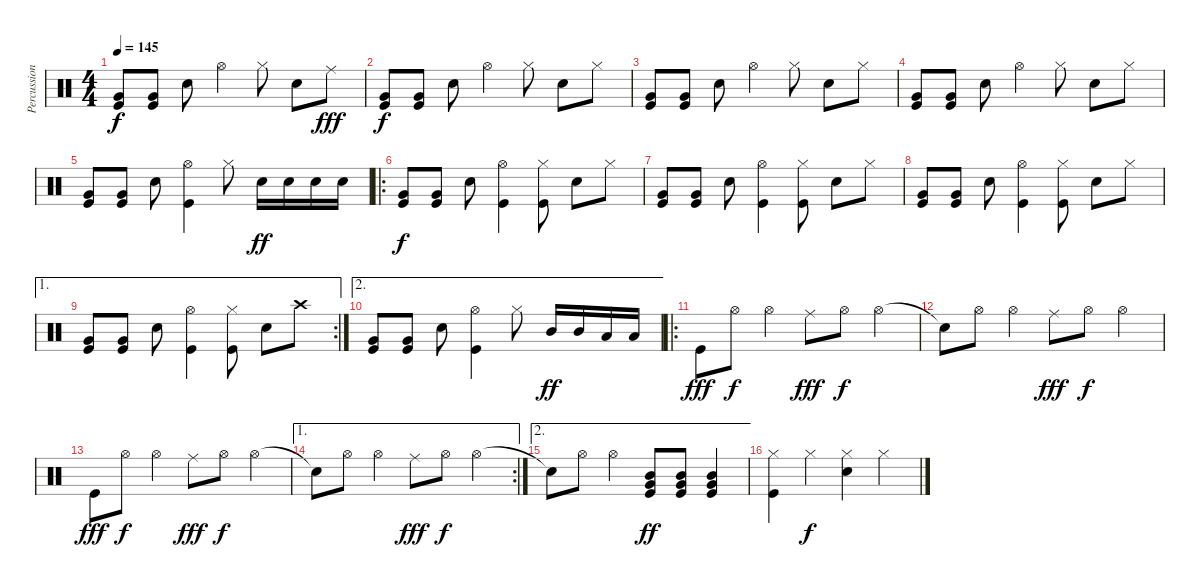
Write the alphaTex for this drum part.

\track ("Percussions" "Percussion") {instrument percussion}
\staff {score}
\articulation defaults
\ts (4 4)
\tempo 145
\clef neutral
\ks c
("Very Low Tom (hit)" "Kick (hit)").8{dy f} ("Very Low Tom (hit)" "Kick (hit)").8 "Snare (hit) 2".8 "Hi-Hat (open)".4 "Hi-Hat (closed)".8 "Snare (hit) 2".8 "Ride (middle)".8{dy fff} |
("Very Low Tom (hit)" "Kick (hit)").8{dy f} ("Very Low Tom (hit)" "Kick (hit)").8 "Snare (hit) 2".8 "Hi-Hat (open)".4 "Hi-Hat (closed)".8 "Snare (hit) 2".8 "Hi-Hat (closed)".8 |
("Very Low Tom (hit)" "Kick (hit)").8 ("Very Low Tom (hit)" "Kick (hit)").8 "Snare (hit) 2".8 "Hi-Hat (open)".4 "Hi-Hat (closed)".8 "Snare (hit) 2".8 "Hi-Hat (closed)".8 |
("Very Low Tom (hit)" "Kick (hit)").8 ("Very Low Tom (hit)" "Kick (hit)").8 "Snare (hit) 2".8 "Hi-Hat (open)".4 "Hi-Hat (closed)".8 "Snare (hit) 2".8 "Hi-Hat (closed)".8 |
("Very Low Tom (hit)" "Kick (hit)").8 ("Very Low Tom (hit)" "Kick (hit)").8 "Snare (hit) 2".8 ("Hi-Hat (open)" "Kick (hit)").4 "Hi-Hat (closed)".8 "Snare (hit) 2".16{dy ff} "Snare (hit) 2".16 "Snare (hit) 2".16 "Snare (hit) 2".16 |
\ro
("Very Low Tom (hit)" "Kick (hit)").8{dy f} ("Very Low Tom (hit)" "Kick (hit)").8 "Snare (hit) 2".8 ("Hi-Hat (open)" "Kick (hit)").4 ("Hi-Hat (closed)" "Kick (hit)").8 "Snare (hit) 2".8 "Hi-Hat (closed)".8 |
("Very Low Tom (hit)" "Kick (hit)").8 ("Very Low Tom (hit)" "Kick (hit)").8 "Snare (hit) 2".8 ("Hi-Hat (open)" "Kick (hit)").4 ("Hi-Hat (closed)" "Kick (hit)").8 "Snare (hit) 2".8 "Hi-Hat (closed)".8 |
("Very Low Tom (hit)" "Kick (hit)").8 ("Very Low Tom (hit)" "Kick (hit)").8 "Snare (hit) 2".8 ("Hi-Hat (open)" "Kick (hit)").4 ("Hi-Hat (closed)" "Kick (hit)").8 "Snare (hit) 2".8 "Hi-Hat (closed)".8 |
\ae 1
\rc 2
("Very Low Tom (hit)" "Kick (hit)").8 ("Very Low Tom (hit)" "Kick (hit)").8 "Snare (hit) 2".8 ("Hi-Hat (open)" "Kick (hit)").4 ("Hi-Hat (closed)" "Kick (hit)").8 "Snare (hit) 2".8 "Crash high (hit)".8 |
\ae 2
("Very Low Tom (hit)" "Kick (hit)").8 ("Very Low Tom (hit)" "Kick (hit)").8 "Snare (hit) 2".8 ("Hi-Hat (open)" "Kick (hit)").4 "Hi-Hat (closed)".8 "Mid Tom (hit)".16{dy ff} "Mid Tom (hit)".16 "Low Tom (hit)".16 "Low Tom (hit)".16 |
\ro "Kick (hit)".8{dy fff} "Hi-Hat (open)".8{dy f} "Hi-Hat (open)".4 "Ride (middle)".8{dy fff} "Hi-Hat (open)".8{dy f} "Hi-Hat (open)".4
|
"Snare (hit)"{t}.8 "Hi-Hat (open)".8 "Hi-Hat (open)".4 "Ride (middle)".8{dy fff} "Hi-Hat (open)".8{dy f} "Hi-Hat (open)".4 |
"Kick (hit)".8{dy fff} "Hi-Hat (open)".8{dy f} "Hi-Hat (open)".4 "Ride (middle)".8{dy fff} "Hi-Hat (open)".8{dy f} "Hi-Hat (open)".4 |
\ae 1
\rc 2 "Snare (hit)"{t}.8 "Hi-Hat (open)".8 "Hi-Hat (open)".4 "Ride (middle)".8{dy fff} "Hi-Hat (open)".8{dy f} "Hi-Hat (open)".4
|
\ae 2 "Snare (hit)"{t}.8 "Hi-Hat (open)".8 "Hi-Hat (open)".4
("Mid Tom (hit)" "Very Low Tom (hit)" "Kick (hit)").8{dy ff} ("Mid Tom (hit)" "Very Low Tom (hit)" "Kick (hit)").8 ("Mid Tom (hit)" "Very Low Tom (hit)" "Kick (hit)").4 |
("Hi-Hat (closed)" "Kick (hit)").4 "Hi-Hat (closed)".4{dy f} ("Hi-Hat (closed)" "Snare (hit) 2").4 "Hi-Hat (closed)".4
